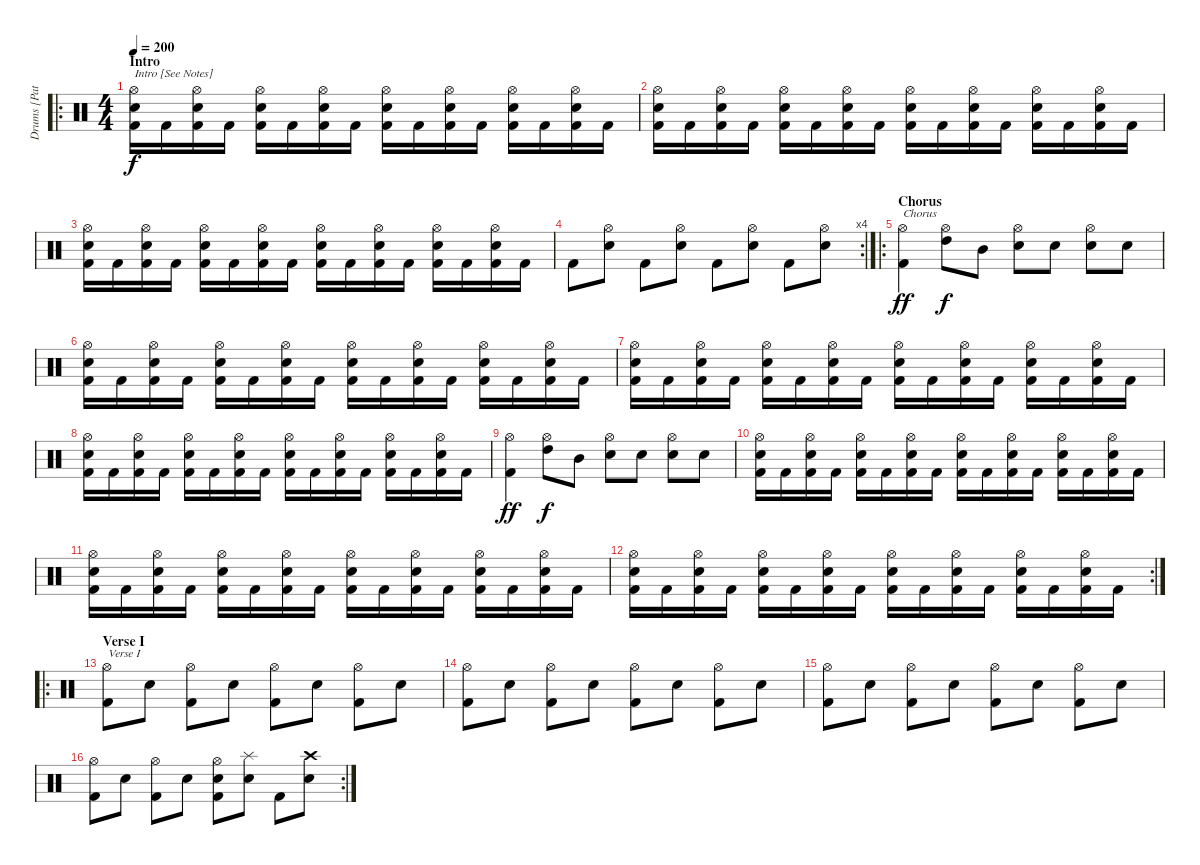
\track ("Drums [Patrick Robert]" "Drums [Pat") {instrument percussion}
\staff {score}
\articulation defaults
\ro
\ts (4 4)
\section ("" "Intro")
\tempo 200
\clef neutral
\ks c
("Hi-Hat (open)" "Electric Snare (hit)" "Kick (hit) 2").16{txt "Intro [See Notes]" dy f} "Kick (hit) 2".16 ("Hi-Hat (open)" "Electric Snare (hit)" "Kick (hit) 2").16 "Kick (hit) 2".16 ("Hi-Hat (open)" "Electric Snare (hit)" "Kick (hit) 2").16 "Kick (hit) 2".16 ("Hi-Hat (open)" "Electric Snare (hit)" "Kick (hit) 2").16 "Kick (hit) 2".16 ("Hi-Hat (open)" "Electric Snare (hit)" "Kick (hit) 2").16 "Kick (hit) 2".16 ("Hi-Hat (open)" "Electric Snare (hit)" "Kick (hit) 2").16 "Kick (hit) 2".16 ("Hi-Hat (open)" "Electric Snare (hit)" "Kick (hit) 2").16 "Kick (hit) 2".16 ("Hi-Hat (open)" "Electric Snare (hit)" "Kick (hit) 2").16 "Kick (hit) 2".16 |
("Hi-Hat (open)" "Electric Snare (hit)" "Kick (hit) 2").16 "Kick (hit) 2".16 ("Hi-Hat (open)" "Electric Snare (hit)" "Kick (hit) 2").16 "Kick (hit) 2".16 ("Hi-Hat (open)" "Electric Snare (hit)" "Kick (hit) 2").16 "Kick (hit) 2".16 ("Hi-Hat (open)" "Electric Snare (hit)" "Kick (hit) 2").16 "Kick (hit) 2".16 ("Hi-Hat (open)" "Electric Snare (hit)" "Kick (hit) 2").16 "Kick (hit) 2".16 ("Hi-Hat (open)" "Electric Snare (hit)" "Kick (hit) 2").16 "Kick (hit) 2".16 ("Hi-Hat (open)" "Electric Snare (hit)" "Kick (hit) 2").16 "Kick (hit) 2".16 ("Hi-Hat (open)" "Electric Snare (hit)" "Kick (hit) 2").16 "Kick (hit) 2".16 |
("Hi-Hat (open)" "Electric Snare (hit)" "Kick (hit) 2").16 "Kick (hit) 2".16 ("Hi-Hat (open)" "Electric Snare (hit)" "Kick (hit) 2").16 "Kick (hit) 2".16 ("Hi-Hat (open)" "Electric Snare (hit)" "Kick (hit) 2").16 "Kick (hit) 2".16 ("Hi-Hat (open)" "Electric Snare (hit)" "Kick (hit) 2").16 "Kick (hit) 2".16 ("Hi-Hat (open)" "Electric Snare (hit)" "Kick (hit) 2").16 "Kick (hit) 2".16 ("Hi-Hat (open)" "Electric Snare (hit)" "Kick (hit) 2").16 "Kick (hit) 2".16 ("Hi-Hat (open)" "Electric Snare (hit)" "Kick (hit) 2").16 "Kick (hit) 2".16 ("Hi-Hat (open)" "Electric Snare (hit)" "Kick (hit) 2").16 "Kick (hit) 2".16 |
\rc 4 "Kick (hit) 2".8
("Hi-Hat (open)" "Electric Snare (hit)").8 "Kick (hit) 2".8 ("Hi-Hat (open)" "Electric Snare (hit)").8 "Kick (hit) 2".8 ("Hi-Hat (open)" "Electric Snare (hit)").8 "Kick (hit) 2".8 ("Hi-Hat (open)" "Electric Snare (hit)").8 |
\ro
\section ("" "Chorus")
("Hi-Hat (open)" "Kick (hit) 2").4{txt "Chorus" dy ff} ("Hi-Hat (open)" "High Tom (hit)").8{dy f} "Mid Tom (hit)".8 ("Hi-Hat (open)" "Electric Snare (hit)").8 "Electric Snare (hit)".8 ("Hi-Hat (open)" "Electric Snare (hit)").8 "Electric Snare (hit)".8 |
("Hi-Hat (open)" "Electric Snare (hit)" "Kick (hit) 2").16 "Kick (hit) 2".16 ("Hi-Hat (open)" "Electric Snare (hit)" "Kick (hit) 2").16 "Kick (hit) 2".16 ("Hi-Hat (open)" "Electric Snare (hit)" "Kick (hit) 2").16 "Kick (hit) 2".16 ("Hi-Hat (open)" "Electric Snare (hit)" "Kick (hit) 2").16 "Kick (hit) 2".16 ("Hi-Hat (open)" "Electric Snare (hit)" "Kick (hit) 2").16 "Kick (hit) 2".16 ("Hi-Hat (open)" "Electric Snare (hit)" "Kick (hit) 2").16 "Kick (hit) 2".16 ("Hi-Hat (open)" "Electric Snare (hit)" "Kick (hit) 2").16 "Kick (hit) 2".16 ("Hi-Hat (open)" "Electric Snare (hit)" "Kick (hit) 2").16 "Kick (hit) 2".16 |
("Hi-Hat (open)" "Electric Snare (hit)" "Kick (hit) 2").16 "Kick (hit) 2".16 ("Hi-Hat (open)" "Electric Snare (hit)" "Kick (hit) 2").16 "Kick (hit) 2".16 ("Hi-Hat (open)" "Electric Snare (hit)" "Kick (hit) 2").16 "Kick (hit) 2".16 ("Hi-Hat (open)" "Electric Snare (hit)" "Kick (hit) 2").16 "Kick (hit) 2".16 ("Hi-Hat (open)" "Electric Snare (hit)" "Kick (hit) 2").16 "Kick (hit) 2".16 ("Hi-Hat (open)" "Electric Snare (hit)" "Kick (hit) 2").16 "Kick (hit) 2".16 ("Hi-Hat (open)" "Electric Snare (hit)" "Kick (hit) 2").16 "Kick (hit) 2".16 ("Hi-Hat (open)" "Electric Snare (hit)" "Kick (hit) 2").16 "Kick (hit) 2".16 |
("Hi-Hat (open)" "Electric Snare (hit)" "Kick (hit) 2").16 "Kick (hit) 2".16 ("Hi-Hat (open)" "Electric Snare (hit)" "Kick (hit) 2").16 "Kick (hit) 2".16 ("Hi-Hat (open)" "Electric Snare (hit)" "Kick (hit) 2").16 "Kick (hit) 2".16 ("Hi-Hat (open)" "Electric Snare (hit)" "Kick (hit) 2").16 "Kick (hit) 2".16 ("Hi-Hat (open)" "Electric Snare (hit)" "Kick (hit) 2").16 "Kick (hit) 2".16 ("Hi-Hat (open)" "Electric Snare (hit)" "Kick (hit) 2").16 "Kick (hit) 2".16 ("Hi-Hat (open)" "Electric Snare (hit)" "Kick (hit) 2").16 "Kick (hit) 2".16 ("Hi-Hat (open)" "Electric Snare (hit)" "Kick (hit) 2").16 "Kick (hit) 2".16 |
("Hi-Hat (open)" "Kick (hit) 2").4{dy ff} ("Hi-Hat (open)" "High Tom (hit)").8{dy f} "Mid Tom (hit)".8 ("Hi-Hat (open)" "Electric Snare (hit)").8 "Electric Snare (hit)".8 ("Hi-Hat (open)" "Electric Snare (hit)").8 "Electric Snare (hit)".8 |
("Hi-Hat (open)" "Electric Snare (hit)" "Kick (hit) 2").16 "Kick (hit) 2".16 ("Hi-Hat (open)" "Electric Snare (hit)" "Kick (hit) 2").16 "Kick (hit) 2".16 ("Hi-Hat (open)" "Electric Snare (hit)" "Kick (hit) 2").16 "Kick (hit) 2".16 ("Hi-Hat (open)" "Electric Snare (hit)" "Kick (hit) 2").16 "Kick (hit) 2".16 ("Hi-Hat (open)" "Electric Snare (hit)" "Kick (hit) 2").16 "Kick (hit) 2".16 ("Hi-Hat (open)" "Electric Snare (hit)" "Kick (hit) 2").16 "Kick (hit) 2".16 ("Hi-Hat (open)" "Electric Snare (hit)" "Kick (hit) 2").16 "Kick (hit) 2".16 ("Hi-Hat (open)" "Electric Snare (hit)" "Kick (hit) 2").16 "Kick (hit) 2".16 |
("Hi-Hat (open)" "Electric Snare (hit)" "Kick (hit) 2").16 "Kick (hit) 2".16 ("Hi-Hat (open)" "Electric Snare (hit)" "Kick (hit) 2").16 "Kick (hit) 2".16 ("Hi-Hat (open)" "Electric Snare (hit)" "Kick (hit) 2").16 "Kick (hit) 2".16 ("Hi-Hat (open)" "Electric Snare (hit)" "Kick (hit) 2").16 "Kick (hit) 2".16 ("Hi-Hat (open)" "Electric Snare (hit)" "Kick (hit) 2").16 "Kick (hit) 2".16 ("Hi-Hat (open)" "Electric Snare (hit)" "Kick (hit) 2").16 "Kick (hit) 2".16 ("Hi-Hat (open)" "Electric Snare (hit)" "Kick (hit) 2").16 "Kick (hit) 2".16 ("Hi-Hat (open)" "Electric Snare (hit)" "Kick (hit) 2").16 "Kick (hit) 2".16 |
\rc 2
("Hi-Hat (open)" "Electric Snare (hit)" "Kick (hit) 2").16 "Kick (hit) 2".16 ("Hi-Hat (open)" "Electric Snare (hit)" "Kick (hit) 2").16 "Kick (hit) 2".16 ("Hi-Hat (open)" "Electric Snare (hit)" "Kick (hit) 2").16 "Kick (hit) 2".16 ("Hi-Hat (open)" "Electric Snare (hit)" "Kick (hit) 2").16 "Kick (hit) 2".16 ("Hi-Hat (open)" "Electric Snare (hit)" "Kick (hit) 2").16 "Kick (hit) 2".16 ("Hi-Hat (open)" "Electric Snare (hit)" "Kick (hit) 2").16 "Kick (hit) 2".16 ("Hi-Hat (open)" "Electric Snare (hit)" "Kick (hit) 2").16 "Kick (hit) 2".16 ("Hi-Hat (open)" "Electric Snare (hit)" "Kick (hit) 2").16 "Kick (hit) 2".16 |
\ro
\section ("" "Verse I")
("Hi-Hat (open)" "Kick (hit) 2").8{txt "Verse I"} "Electric Snare (hit)".8 ("Hi-Hat (open)" "Kick (hit) 2").8 "Electric Snare (hit)".8 ("Hi-Hat (open)" "Kick (hit) 2").8 "Electric Snare (hit)".8 ("Hi-Hat (open)" "Kick (hit) 2").8 "Electric Snare (hit)".8 |
("Hi-Hat (open)" "Kick (hit) 2").8 "Electric Snare (hit)".8 ("Hi-Hat (open)" "Kick (hit) 2").8 "Electric Snare (hit)".8 ("Hi-Hat (open)" "Kick (hit) 2").8 "Electric Snare (hit)".8 ("Hi-Hat (open)" "Kick (hit) 2").8 "Electric Snare (hit)".8 |
("Hi-Hat (open)" "Kick (hit) 2").8 "Electric Snare (hit)".8 ("Hi-Hat (open)" "Kick (hit) 2").8 "Electric Snare (hit)".8 ("Hi-Hat (open)" "Kick (hit) 2").8 "Electric Snare (hit)".8 ("Hi-Hat (open)" "Kick (hit) 2").8 "Electric Snare (hit)".8 |
\rc 2
("Hi-Hat (open)" "Kick (hit) 2").8 "Electric Snare (hit)".8 ("Hi-Hat (open)" "Kick (hit) 2").8 "Electric Snare (hit)".8 ("Hi-Hat (open)" "Electric Snare (hit)" "Kick (hit) 2").8 ("Splash (hit)" "Electric Snare (hit)").8 "Kick (hit) 2".8 ("Crash high (hit)" "Electric Snare (hit)").8
